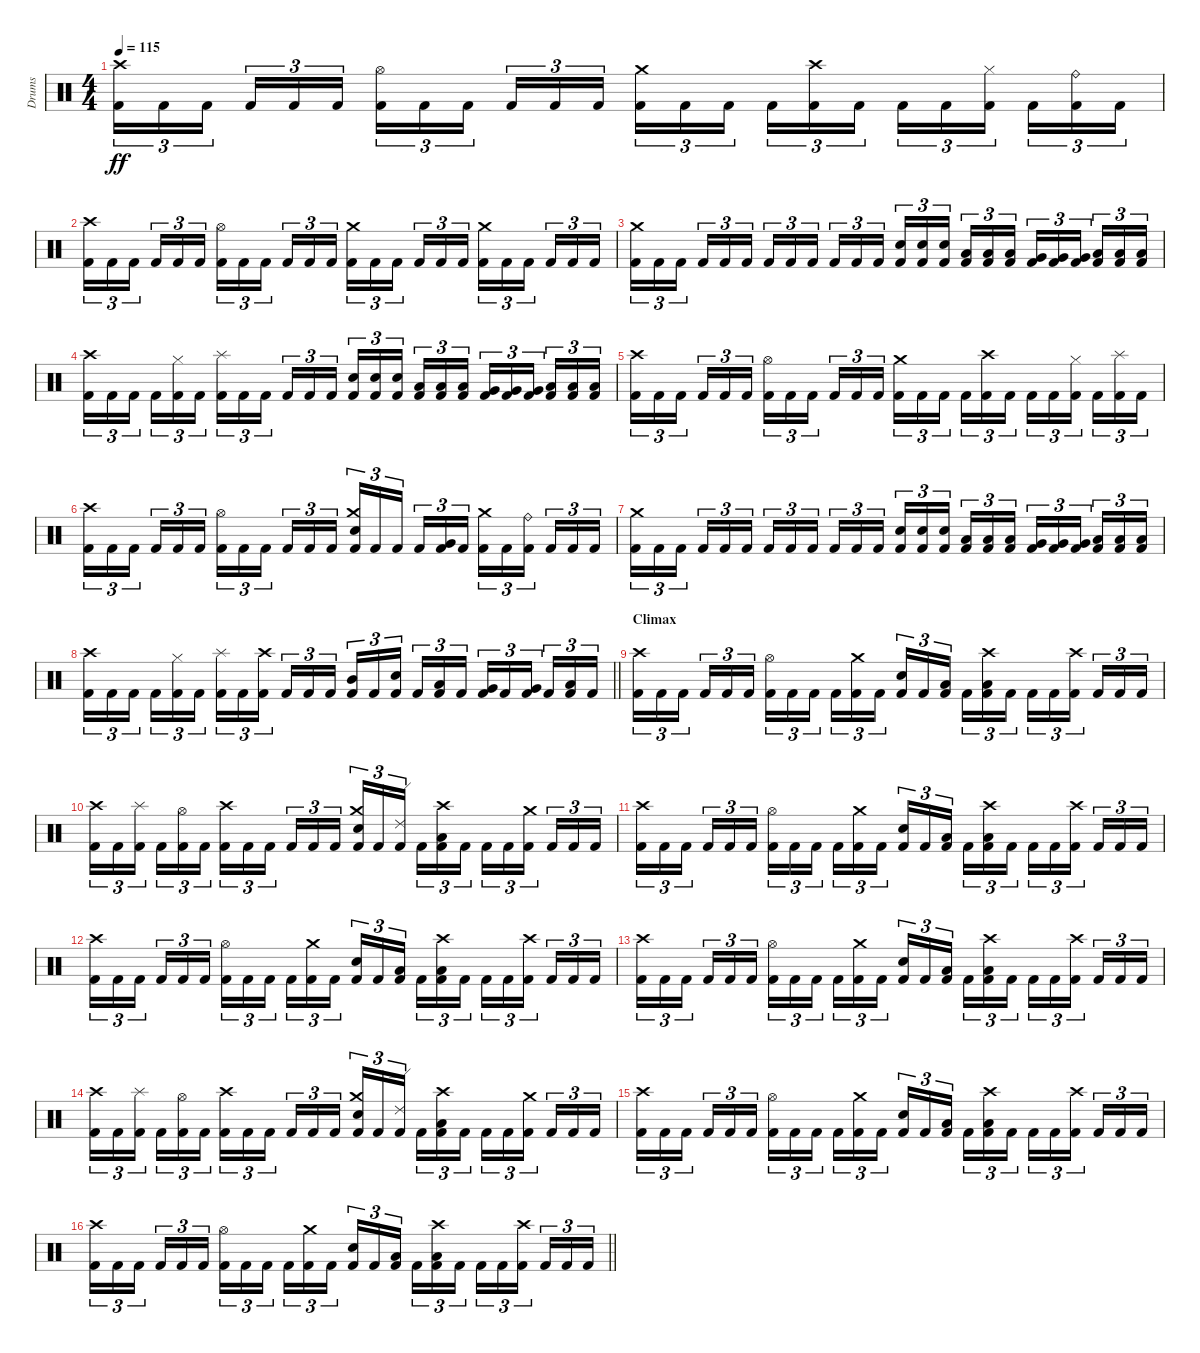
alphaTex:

\track ("Drums" "Drums") {instrument percussion}
\staff {score}
\articulation defaults
\ts (4 4)
\tempo 115
\clef neutral
\ks c
("Crash high (hit)" "Kick (hit) 2").16{tu (3 2) dy ff} "Kick (hit) 2".16{tu (3 2)} "Kick (hit) 2".16{tu (3 2) beam splitsecondary} "Kick (hit) 2".16{tu (3 2)} "Kick (hit) 2".16{tu (3 2)} "Kick (hit) 2".16{tu (3 2)} ("Hi-Hat (open)" "Kick (hit) 2").16{tu (3 2)} "Kick (hit) 2".16{tu (3 2)} "Kick (hit) 2".16{tu (3 2) beam splitsecondary} "Kick (hit) 2".16{tu (3 2)} "Kick (hit) 2".16{tu (3 2)} "Kick (hit) 2".16{tu (3 2)} ("Crash medium (hit)" "Kick (hit) 2").16{tu (3 2)} "Kick (hit) 2".16{tu (3 2)} "Kick (hit) 2".16{tu (3 2) beam splitsecondary} "Kick (hit) 2".16{tu (3 2)} ("Crash high (hit)" "Kick (hit) 2").16{tu (3 2)} "Kick (hit) 2".16{tu (3 2)} "Kick (hit) 2".16{tu (3 2)} "Kick (hit) 2".16{tu (3 2)} ("Hi-Hat (closed)" "Kick (hit) 2").16{tu (3 2) beam splitsecondary} "Kick (hit) 2".16{tu (3 2)} ("Ride (bell)" "Kick (hit) 2").16{tu (3 2)} "Kick (hit) 2".16{tu (3 2)} |
("Crash high (hit)" "Kick (hit) 2").16{tu (3 2)} "Kick (hit) 2".16{tu (3 2)} "Kick (hit) 2".16{tu (3 2) beam splitsecondary} "Kick (hit) 2".16{tu (3 2)} "Kick (hit) 2".16{tu (3 2)} "Kick (hit) 2".16{tu (3 2)} ("Hi-Hat (open)" "Kick (hit) 2").16{tu (3 2)} "Kick (hit) 2".16{tu (3 2)} "Kick (hit) 2".16{tu (3 2) beam splitsecondary} "Kick (hit) 2".16{tu (3 2)} "Kick (hit) 2".16{tu (3 2)} "Kick (hit) 2".16{tu (3 2)} ("Crash medium (hit)" "Kick (hit) 2").16{tu (3 2)} "Kick (hit) 2".16{tu (3 2)} "Kick (hit) 2".16{tu (3 2) beam splitsecondary} "Kick (hit) 2".16{tu (3 2)} "Kick (hit) 2".16{tu (3 2)} "Kick (hit) 2".16{tu (3 2)} ("Crash medium (hit)" "Kick (hit) 2").16{tu (3 2)} "Kick (hit) 2".16{tu (3 2)} "Kick (hit) 2".16{tu (3 2) beam splitsecondary} "Kick (hit) 2".16{tu (3 2)} "Kick (hit) 2".16{tu (3 2)} "Kick (hit) 2".16{tu (3 2)} |
("Crash medium (hit)" "Kick (hit) 2").16{tu (3 2)} "Kick (hit) 2".16{tu (3 2)} "Kick (hit) 2".16{tu (3 2) beam splitsecondary} "Kick (hit) 2".16{tu (3 2)} "Kick (hit) 2".16{tu (3 2)} "Kick (hit) 2".16{tu (3 2)} "Kick (hit) 2".16{tu (3 2)} "Kick (hit) 2".16{tu (3 2)} "Kick (hit) 2".16{tu (3 2) beam splitsecondary} "Kick (hit) 2".16{tu (3 2)} "Kick (hit) 2".16{tu (3 2)} "Kick (hit) 2".16{tu (3 2)} ("Snare (hit) 2" "Kick (hit) 2").16{tu (3 2)} ("Snare (hit) 2" "Kick (hit) 2").16{tu (3 2)} ("Snare (hit) 2" "Kick (hit) 2").16{tu (3 2) beam splitsecondary} ("Low Tom (hit)" "Kick (hit) 2").16{tu (3 2)} ("Low Tom (hit)" "Kick (hit) 2").16{tu (3 2)} ("Low Tom (hit)" "Kick (hit) 2").16{tu (3 2)} ("Very Low Tom (hit)" "Kick (hit) 2").16{tu (3 2)} ("Very Low Tom (hit)" "Kick (hit) 2").16{tu (3 2)} ("Very Low Tom (hit)" "Kick (hit) 2").16{tu (3 2) beam splitsecondary} ("Low Floor Tom (hit)" "Kick (hit) 2").16{tu (3 2)} ("Low Floor Tom (hit)" "Kick (hit) 2").16{tu (3 2)} ("Low Floor Tom (hit)" "Kick (hit) 2").16{tu (3 2)} |
("Crash high (hit)" "Kick (hit) 2").16{tu (3 2)} "Kick (hit) 2".16{tu (3 2)} "Kick (hit) 2".16{tu (3 2) beam splitsecondary} "Kick (hit) 2".16{tu (3 2)} ("Hi-Hat (closed)" "Kick (hit) 2").16{tu (3 2)} "Kick (hit) 2".16{tu (3 2)} ("Splash (hit)" "Kick (hit) 2").16{tu (3 2)} "Kick (hit) 2".16{tu (3 2)} "Kick (hit) 2".16{tu (3 2) beam splitsecondary} "Kick (hit) 2".16{tu (3 2)} "Kick (hit) 2".16{tu (3 2)} "Kick (hit) 2".16{tu (3 2)} ("Snare (hit) 2" "Kick (hit) 2").16{tu (3 2)} ("Snare (hit) 2" "Kick (hit) 2").16{tu (3 2)} ("Snare (hit) 2" "Kick (hit) 2").16{tu (3 2) beam splitsecondary} ("Low Tom (hit)" "Kick (hit) 2").16{tu (3 2)} ("Low Tom (hit)" "Kick (hit) 2").16{tu (3 2)} ("Low Tom (hit)" "Kick (hit) 2").16{tu (3 2)} ("Very Low Tom (hit)" "Kick (hit) 2").16{tu (3 2)} ("Very Low Tom (hit)" "Kick (hit) 2").16{tu (3 2)} ("Very Low Tom (hit)" "Kick (hit) 2").16{tu (3 2) beam splitsecondary} ("Low Floor Tom (hit)" "Kick (hit) 2").16{tu (3 2)} ("Low Floor Tom (hit)" "Kick (hit) 2").16{tu (3 2)} ("Low Floor Tom (hit)" "Kick (hit) 2").16{tu (3 2)} |
("Crash high (hit)" "Kick (hit) 2").16{tu (3 2)} "Kick (hit) 2".16{tu (3 2)} "Kick (hit) 2".16{tu (3 2) beam splitsecondary} "Kick (hit) 2".16{tu (3 2)} "Kick (hit) 2".16{tu (3 2)} "Kick (hit) 2".16{tu (3 2)} ("Hi-Hat (open)" "Kick (hit) 2").16{tu (3 2)} "Kick (hit) 2".16{tu (3 2)} "Kick (hit) 2".16{tu (3 2) beam splitsecondary} "Kick (hit) 2".16{tu (3 2)} "Kick (hit) 2".16{tu (3 2)} "Kick (hit) 2".16{tu (3 2)} ("Crash medium (hit)" "Kick (hit) 2").16{tu (3 2)} "Kick (hit) 2".16{tu (3 2)} "Kick (hit) 2".16{tu (3 2) beam splitsecondary} "Kick (hit) 2".16{tu (3 2)} ("Crash high (hit)" "Kick (hit) 2").16{tu (3 2)} "Kick (hit) 2".16{tu (3 2)} "Kick (hit) 2".16{tu (3 2)} "Kick (hit) 2".16{tu (3 2)} ("Hi-Hat (closed)" "Kick (hit) 2").16{tu (3 2) beam splitsecondary} "Kick (hit) 2".16{tu (3 2)} ("Splash (hit)" "Kick (hit) 2").16{tu (3 2)} "Kick (hit) 2".16{tu (3 2)} |
("Crash high (hit)" "Kick (hit) 2").16{tu (3 2)} "Kick (hit) 2".16{tu (3 2)} "Kick (hit) 2".16{tu (3 2) beam splitsecondary} "Kick (hit) 2".16{tu (3 2)} "Kick (hit) 2".16{tu (3 2)} "Kick (hit) 2".16{tu (3 2)} ("Hi-Hat (open)" "Kick (hit) 2").16{tu (3 2)} "Kick (hit) 2".16{tu (3 2)} "Kick (hit) 2".16{tu (3 2) beam splitsecondary} "Kick (hit) 2".16{tu (3 2)} "Kick (hit) 2".16{tu (3 2)} "Kick (hit) 2".16{tu (3 2)} ("Crash medium (hit)" "Snare (hit) 2" "Kick (hit) 2").16{tu (3 2)} "Kick (hit) 2".16{tu (3 2)} "Kick (hit) 2".16{tu (3 2) beam splitsecondary} "Kick (hit) 2".16{tu (3 2)} ("Very Low Tom (hit)" "Kick (hit) 2").16{tu (3 2)} "Kick (hit) 2".16{tu (3 2)} ("Crash medium (hit)" "Kick (hit) 2").16{tu (3 2)} "Kick (hit) 2".16{tu (3 2)} ("Ride (bell)" "Kick (hit) 2").16{tu (3 2) beam splitsecondary} "Kick (hit) 2".16{tu (3 2)} "Kick (hit) 2".16{tu (3 2)} "Kick (hit) 2".16{tu (3 2)} |
("Crash medium (hit)" "Kick (hit) 2").16{tu (3 2)} "Kick (hit) 2".16{tu (3 2)} "Kick (hit) 2".16{tu (3 2) beam splitsecondary} "Kick (hit) 2".16{tu (3 2)} "Kick (hit) 2".16{tu (3 2)} "Kick (hit) 2".16{tu (3 2)} "Kick (hit) 2".16{tu (3 2)} "Kick (hit) 2".16{tu (3 2)} "Kick (hit) 2".16{tu (3 2) beam splitsecondary} "Kick (hit) 2".16{tu (3 2)} "Kick (hit) 2".16{tu (3 2)} "Kick (hit) 2".16{tu (3 2)} ("Snare (hit) 2" "Kick (hit) 2").16{tu (3 2)} ("Snare (hit) 2" "Kick (hit) 2").16{tu (3 2)} ("Snare (hit) 2" "Kick (hit) 2").16{tu (3 2) beam splitsecondary} ("Low Tom (hit)" "Kick (hit) 2").16{tu (3 2)} ("Low Tom (hit)" "Kick (hit) 2").16{tu (3 2)} ("Low Tom (hit)" "Kick (hit) 2").16{tu (3 2)} ("Very Low Tom (hit)" "Kick (hit) 2").16{tu (3 2)} ("Very Low Tom (hit)" "Kick (hit) 2").16{tu (3 2)} ("Very Low Tom (hit)" "Kick (hit) 2").16{tu (3 2) beam splitsecondary} ("Low Floor Tom (hit)" "Kick (hit) 2").16{tu (3 2)} ("Low Floor Tom (hit)" "Kick (hit) 2").16{tu (3 2)} ("Low Floor Tom (hit)" "Kick (hit) 2").16{tu (3 2)} |
\barLineRight lightlight
("Crash high (hit)" "Kick (hit) 2").16{tu (3 2)} "Kick (hit) 2".16{tu (3 2)} "Kick (hit) 2".16{tu (3 2) beam splitsecondary} "Kick (hit) 2".16{tu (3 2)} ("Hi-Hat (closed)" "Kick (hit) 2").16{tu (3 2)} "Kick (hit) 2".16{tu (3 2)} ("Splash (hit)" "Kick (hit) 2").16{tu (3 2)} "Kick (hit) 2".16{tu (3 2)} ("Crash high (hit)" "Kick (hit) 2").16{tu (3 2) beam splitsecondary} "Kick (hit) 2".16{tu (3 2)} "Kick (hit) 2".16{tu (3 2)} "Kick (hit) 2".16{tu (3 2)} ("Mid Tom (hit)" "Kick (hit) 2").16{tu (3 2)} "Kick (hit) 2".16{tu (3 2)} ("Snare (hit) 2" "Kick (hit) 2").16{tu (3 2) beam splitsecondary} "Kick (hit) 2".16{tu (3 2)} ("Low Tom (hit)" "Kick (hit) 2").16{tu (3 2)} "Kick (hit) 2".16{tu (3 2)} ("Very Low Tom (hit)" "Kick (hit) 2").16{tu (3 2)} "Kick (hit) 2".16{tu (3 2)} ("Very Low Tom (hit)" "Kick (hit) 2").16{tu (3 2) beam splitsecondary} "Kick (hit) 2".16{tu (3 2)} ("Low Floor Tom (hit)" "Kick (hit) 2").16{tu (3 2)} "Kick (hit) 2".16{tu (3 2)} |
\section ("" "Climax")
("Crash high (hit)" "Kick (hit) 2").16{tu (3 2)} "Kick (hit) 2".16{tu (3 2)} "Kick (hit) 2".16{tu (3 2) beam splitsecondary} "Kick (hit) 2".16{tu (3 2)} "Kick (hit) 2".16{tu (3 2)} "Kick (hit) 2".16{tu (3 2)} ("Hi-Hat (open)" "Kick (hit) 2").16{tu (3 2)} "Kick (hit) 2".16{tu (3 2)} "Kick (hit) 2".16{tu (3 2) beam splitsecondary} "Kick (hit) 2".16{tu (3 2)} ("Crash medium (hit)" "Kick (hit) 2").16{tu (3 2)} "Kick (hit) 2".16{tu (3 2)} ("Snare (hit) 2" "Kick (hit) 2").16{tu (3 2)} "Kick (hit) 2".16{tu (3 2)} ("Low Tom (hit)" "Kick (hit) 2").16{tu (3 2) beam splitsecondary} "Kick (hit) 2".16{tu (3 2)} ("Crash high (hit)" "Low Tom (hit)" "Kick (hit) 2").16{tu (3 2)} "Kick (hit) 2".16{tu (3 2)} "Kick (hit) 2".16{tu (3 2)} "Kick (hit) 2".16{tu (3 2)} ("Crash high (hit)" "Kick (hit) 2").16{tu (3 2) beam splitsecondary} "Kick (hit) 2".16{tu (3 2)} "Kick (hit) 2".16{tu (3 2)} "Kick (hit) 2".16{tu (3 2)} |
("Crash high (hit)" "Kick (hit) 2").16{tu (3 2)} "Kick (hit) 2".16{tu (3 2)} ("Splash (hit)" "Kick (hit) 2").16{tu (3 2) beam splitsecondary} "Kick (hit) 2".16{tu (3 2)} ("Hi-Hat (open)" "Kick (hit) 2").16{tu (3 2)} "Kick (hit) 2".16{tu (3 2)} ("Crash high (hit)" "Kick (hit) 2").16{tu (3 2)} "Kick (hit) 2".16{tu (3 2)} "Kick (hit) 2".16{tu (3 2) beam splitsecondary} "Kick (hit) 2".16{tu (3 2)} "Kick (hit) 2".16{tu (3 2)} "Kick (hit) 2".16{tu (3 2)} ("Crash medium (hit)" "Snare (hit) 2" "Kick (hit) 2").16{tu (3 2)} "Kick (hit) 2".16{tu (3 2)} ("Ride (edge) 2" "Kick (hit) 2").16{tu (3 2) beam splitsecondary} "Kick (hit) 2".16{tu (3 2)} ("Crash high (hit)" "Low Tom (hit)" "Kick (hit) 2").16{tu (3 2)} "Kick (hit) 2".16{tu (3 2)} "Kick (hit) 2".16{tu (3 2)} "Kick (hit) 2".16{tu (3 2)} ("Crash medium (hit)" "Kick (hit) 2").16{tu (3 2) beam splitsecondary} "Kick (hit) 2".16{tu (3 2)} "Kick (hit) 2".16{tu (3 2)} "Kick (hit) 2".16{tu (3 2)} |
("Crash high (hit)" "Kick (hit) 2").16{tu (3 2)} "Kick (hit) 2".16{tu (3 2)} "Kick (hit) 2".16{tu (3 2) beam splitsecondary} "Kick (hit) 2".16{tu (3 2)} "Kick (hit) 2".16{tu (3 2)} "Kick (hit) 2".16{tu (3 2)} ("Hi-Hat (open)" "Kick (hit) 2").16{tu (3 2)} "Kick (hit) 2".16{tu (3 2)} "Kick (hit) 2".16{tu (3 2) beam splitsecondary} "Kick (hit) 2".16{tu (3 2)} ("Crash medium (hit)" "Kick (hit) 2").16{tu (3 2)} "Kick (hit) 2".16{tu (3 2)} ("Snare (hit) 2" "Kick (hit) 2").16{tu (3 2)} "Kick (hit) 2".16{tu (3 2)} ("Low Tom (hit)" "Kick (hit) 2").16{tu (3 2) beam splitsecondary} "Kick (hit) 2".16{tu (3 2)} ("Crash high (hit)" "Low Tom (hit)" "Kick (hit) 2").16{tu (3 2)} "Kick (hit) 2".16{tu (3 2)} "Kick (hit) 2".16{tu (3 2)} "Kick (hit) 2".16{tu (3 2)} ("Crash high (hit)" "Kick (hit) 2").16{tu (3 2) beam splitsecondary} "Kick (hit) 2".16{tu (3 2)} "Kick (hit) 2".16{tu (3 2)} "Kick (hit) 2".16{tu (3 2)} |
("Crash high (hit)" "Kick (hit) 2").16{tu (3 2)} "Kick (hit) 2".16{tu (3 2)} "Kick (hit) 2".16{tu (3 2) beam splitsecondary} "Kick (hit) 2".16{tu (3 2)} "Kick (hit) 2".16{tu (3 2)} "Kick (hit) 2".16{tu (3 2)} ("Hi-Hat (open)" "Kick (hit) 2").16{tu (3 2)} "Kick (hit) 2".16{tu (3 2)} "Kick (hit) 2".16{tu (3 2) beam splitsecondary} "Kick (hit) 2".16{tu (3 2)} ("Crash medium (hit)" "Kick (hit) 2").16{tu (3 2)} "Kick (hit) 2".16{tu (3 2)} ("Snare (hit) 2" "Kick (hit) 2").16{tu (3 2)} "Kick (hit) 2".16{tu (3 2)} ("Low Tom (hit)" "Kick (hit) 2").16{tu (3 2) beam splitsecondary} "Kick (hit) 2".16{tu (3 2)} ("Crash high (hit)" "Low Tom (hit)" "Kick (hit) 2").16{tu (3 2)} "Kick (hit) 2".16{tu (3 2)} "Kick (hit) 2".16{tu (3 2)} "Kick (hit) 2".16{tu (3 2)} ("Crash high (hit)" "Kick (hit) 2").16{tu (3 2) beam splitsecondary} "Kick (hit) 2".16{tu (3 2)} "Kick (hit) 2".16{tu (3 2)} "Kick (hit) 2".16{tu (3 2)} |
("Crash high (hit)" "Kick (hit) 2").16{tu (3 2)} "Kick (hit) 2".16{tu (3 2)} "Kick (hit) 2".16{tu (3 2) beam splitsecondary} "Kick (hit) 2".16{tu (3 2)} "Kick (hit) 2".16{tu (3 2)} "Kick (hit) 2".16{tu (3 2)} ("Hi-Hat (open)" "Kick (hit) 2").16{tu (3 2)} "Kick (hit) 2".16{tu (3 2)} "Kick (hit) 2".16{tu (3 2) beam splitsecondary} "Kick (hit) 2".16{tu (3 2)} ("Crash medium (hit)" "Kick (hit) 2").16{tu (3 2)} "Kick (hit) 2".16{tu (3 2)} ("Snare (hit) 2" "Kick (hit) 2").16{tu (3 2)} "Kick (hit) 2".16{tu (3 2)} ("Low Tom (hit)" "Kick (hit) 2").16{tu (3 2) beam splitsecondary} "Kick (hit) 2".16{tu (3 2)} ("Crash high (hit)" "Low Tom (hit)" "Kick (hit) 2").16{tu (3 2)} "Kick (hit) 2".16{tu (3 2)} "Kick (hit) 2".16{tu (3 2)} "Kick (hit) 2".16{tu (3 2)} ("Crash high (hit)" "Kick (hit) 2").16{tu (3 2) beam splitsecondary} "Kick (hit) 2".16{tu (3 2)} "Kick (hit) 2".16{tu (3 2)} "Kick (hit) 2".16{tu (3 2)} |
("Crash high (hit)" "Kick (hit) 2").16{tu (3 2)} "Kick (hit) 2".16{tu (3 2)} ("Splash (hit)" "Kick (hit) 2").16{tu (3 2) beam splitsecondary} "Kick (hit) 2".16{tu (3 2)} ("Hi-Hat (open)" "Kick (hit) 2").16{tu (3 2)} "Kick (hit) 2".16{tu (3 2)} ("Crash high (hit)" "Kick (hit) 2").16{tu (3 2)} "Kick (hit) 2".16{tu (3 2)} "Kick (hit) 2".16{tu (3 2) beam splitsecondary} "Kick (hit) 2".16{tu (3 2)} "Kick (hit) 2".16{tu (3 2)} "Kick (hit) 2".16{tu (3 2)} ("Crash medium (hit)" "Snare (hit) 2" "Kick (hit) 2").16{tu (3 2)} "Kick (hit) 2".16{tu (3 2)} ("Ride (edge) 2" "Kick (hit) 2").16{tu (3 2) beam splitsecondary} "Kick (hit) 2".16{tu (3 2)} ("Crash high (hit)" "Low Tom (hit)" "Kick (hit) 2").16{tu (3 2)} "Kick (hit) 2".16{tu (3 2)} "Kick (hit) 2".16{tu (3 2)} "Kick (hit) 2".16{tu (3 2)} ("Crash medium (hit)" "Kick (hit) 2").16{tu (3 2) beam splitsecondary} "Kick (hit) 2".16{tu (3 2)} "Kick (hit) 2".16{tu (3 2)} "Kick (hit) 2".16{tu (3 2)} |
("Crash high (hit)" "Kick (hit) 2").16{tu (3 2)} "Kick (hit) 2".16{tu (3 2)} "Kick (hit) 2".16{tu (3 2) beam splitsecondary} "Kick (hit) 2".16{tu (3 2)} "Kick (hit) 2".16{tu (3 2)} "Kick (hit) 2".16{tu (3 2)} ("Hi-Hat (open)" "Kick (hit) 2").16{tu (3 2)} "Kick (hit) 2".16{tu (3 2)} "Kick (hit) 2".16{tu (3 2) beam splitsecondary} "Kick (hit) 2".16{tu (3 2)} ("Crash medium (hit)" "Kick (hit) 2").16{tu (3 2)} "Kick (hit) 2".16{tu (3 2)} ("Snare (hit) 2" "Kick (hit) 2").16{tu (3 2)} "Kick (hit) 2".16{tu (3 2)} ("Low Tom (hit)" "Kick (hit) 2").16{tu (3 2) beam splitsecondary} "Kick (hit) 2".16{tu (3 2)} ("Crash high (hit)" "Low Tom (hit)" "Kick (hit) 2").16{tu (3 2)} "Kick (hit) 2".16{tu (3 2)} "Kick (hit) 2".16{tu (3 2)} "Kick (hit) 2".16{tu (3 2)} ("Crash high (hit)" "Kick (hit) 2").16{tu (3 2) beam splitsecondary} "Kick (hit) 2".16{tu (3 2)} "Kick (hit) 2".16{tu (3 2)} "Kick (hit) 2".16{tu (3 2)} |
\barLineRight lightlight
("Crash high (hit)" "Kick (hit) 2").16{tu (3 2)} "Kick (hit) 2".16{tu (3 2)} "Kick (hit) 2".16{tu (3 2) beam splitsecondary} "Kick (hit) 2".16{tu (3 2)} "Kick (hit) 2".16{tu (3 2)} "Kick (hit) 2".16{tu (3 2)} ("Hi-Hat (open)" "Kick (hit) 2").16{tu (3 2)} "Kick (hit) 2".16{tu (3 2)} "Kick (hit) 2".16{tu (3 2) beam splitsecondary} "Kick (hit) 2".16{tu (3 2)} ("Crash medium (hit)" "Kick (hit) 2").16{tu (3 2)} "Kick (hit) 2".16{tu (3 2)} ("Snare (hit) 2" "Kick (hit) 2").16{tu (3 2)} "Kick (hit) 2".16{tu (3 2)} ("Low Tom (hit)" "Kick (hit) 2").16{tu (3 2) beam splitsecondary} "Kick (hit) 2".16{tu (3 2)} ("Crash high (hit)" "Low Tom (hit)" "Kick (hit) 2").16{tu (3 2)} "Kick (hit) 2".16{tu (3 2)} "Kick (hit) 2".16{tu (3 2)} "Kick (hit) 2".16{tu (3 2)} ("Crash high (hit)" "Kick (hit) 2").16{tu (3 2) beam splitsecondary} "Kick (hit) 2".16{tu (3 2)} "Kick (hit) 2".16{tu (3 2)} "Kick (hit) 2".16{tu (3 2)}
